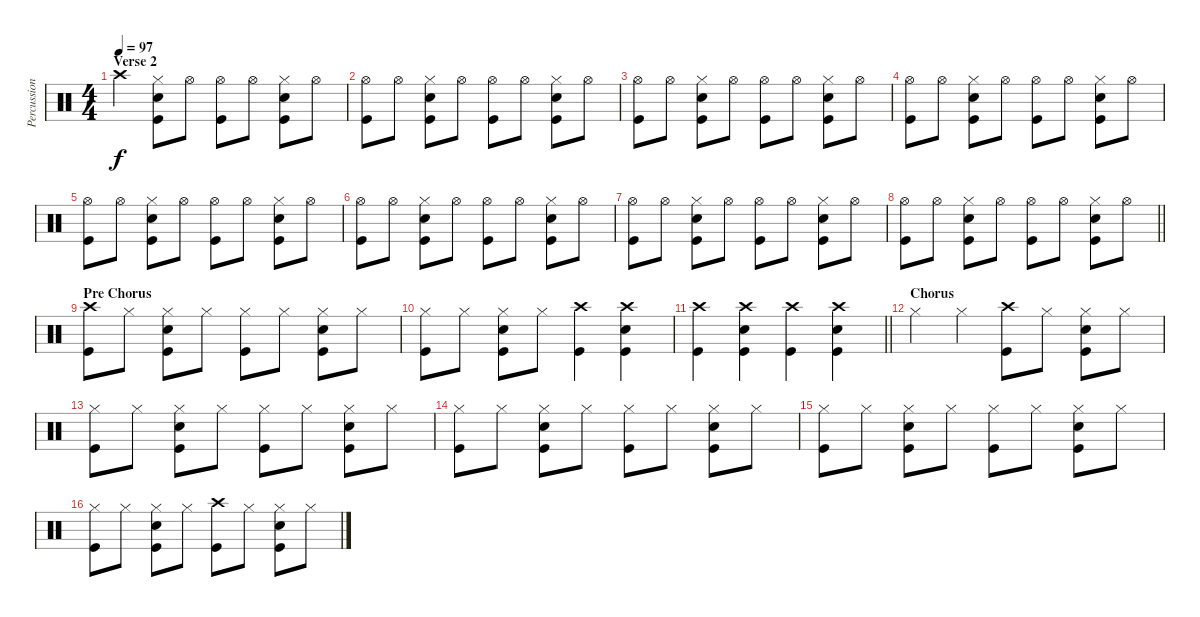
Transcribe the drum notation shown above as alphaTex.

\track ("Percussion" "Percussion") {instrument percussion}
\staff {score}
\articulation defaults
\ts (4 4)
\section ("" "Verse 2")
\tempo 97
\clef neutral
\ks c "Crash high (hit)".4{dy f}
("Hi-Hat (closed)" "Kick (hit)" "Snare (hit) 2").8 "Hi-Hat (open)".8 ("Hi-Hat (open)" "Kick (hit)").8 "Hi-Hat (open)".8 ("Hi-Hat (closed)" "Kick (hit)" "Snare (hit) 2").8 "Hi-Hat (open)".8 |
("Hi-Hat (open)" "Kick (hit)").8 "Hi-Hat (open)".8 ("Hi-Hat (closed)" "Kick (hit)" "Snare (hit) 2").8 "Hi-Hat (open)".8 ("Hi-Hat (open)" "Kick (hit)").8 "Hi-Hat (open)".8 ("Hi-Hat (closed)" "Kick (hit)" "Snare (hit) 2").8 "Hi-Hat (open)".8 |
("Hi-Hat (open)" "Kick (hit)").8 "Hi-Hat (open)".8 ("Hi-Hat (closed)" "Kick (hit)" "Snare (hit) 2").8 "Hi-Hat (open)".8 ("Hi-Hat (open)" "Kick (hit)").8 "Hi-Hat (open)".8 ("Hi-Hat (closed)" "Kick (hit)" "Snare (hit) 2").8 "Hi-Hat (open)".8 |
("Hi-Hat (open)" "Kick (hit)").8 "Hi-Hat (open)".8 ("Hi-Hat (closed)" "Kick (hit)" "Snare (hit) 2").8 "Hi-Hat (open)".8 ("Hi-Hat (open)" "Kick (hit)").8 "Hi-Hat (open)".8 ("Hi-Hat (closed)" "Kick (hit)" "Snare (hit) 2").8 "Hi-Hat (open)".8 |
("Hi-Hat (open)" "Kick (hit)").8 "Hi-Hat (open)".8 ("Hi-Hat (closed)" "Kick (hit)" "Snare (hit) 2").8 "Hi-Hat (open)".8 ("Hi-Hat (open)" "Kick (hit)").8 "Hi-Hat (open)".8 ("Hi-Hat (closed)" "Kick (hit)" "Snare (hit) 2").8 "Hi-Hat (open)".8 |
("Hi-Hat (open)" "Kick (hit)").8 "Hi-Hat (open)".8 ("Hi-Hat (closed)" "Kick (hit)" "Snare (hit) 2").8 "Hi-Hat (open)".8 ("Hi-Hat (open)" "Kick (hit)").8 "Hi-Hat (open)".8 ("Hi-Hat (closed)" "Kick (hit)" "Snare (hit) 2").8 "Hi-Hat (open)".8 |
("Hi-Hat (open)" "Kick (hit)").8 "Hi-Hat (open)".8 ("Hi-Hat (closed)" "Kick (hit)" "Snare (hit) 2").8 "Hi-Hat (open)".8 ("Hi-Hat (open)" "Kick (hit)").8 "Hi-Hat (open)".8 ("Hi-Hat (closed)" "Kick (hit)" "Snare (hit) 2").8 "Hi-Hat (open)".8 |
\barLineRight lightlight
("Hi-Hat (open)" "Kick (hit)").8 "Hi-Hat (open)".8 ("Hi-Hat (closed)" "Kick (hit)" "Snare (hit) 2").8 "Hi-Hat (open)".8 ("Hi-Hat (open)" "Kick (hit)").8 "Hi-Hat (open)".8 ("Hi-Hat (closed)" "Kick (hit)" "Snare (hit) 2").8 "Hi-Hat (open)".8 |
\section ("" "Pre Chorus")
("Crash high (hit)" "Kick (hit)").8 "Hi-Hat (closed)".8 ("Hi-Hat (closed)" "Kick (hit)" "Snare (hit) 2").8 "Hi-Hat (closed)".8 ("Hi-Hat (closed)" "Kick (hit)").8 "Hi-Hat (closed)".8 ("Hi-Hat (closed)" "Kick (hit)" "Snare (hit) 2").8 "Hi-Hat (closed)".8 |
("Hi-Hat (closed)" "Kick (hit)").8 "Hi-Hat (closed)".8 ("Hi-Hat (closed)" "Kick (hit)" "Snare (hit) 2").8 "Hi-Hat (closed)".8 ("Crash high (hit)" "Kick (hit)").4 ("Crash high (hit)" "Kick (hit)" "Snare (hit) 2").4 |
\barLineRight lightlight
("Crash high (hit)" "Kick (hit)").4 ("Crash high (hit)" "Kick (hit)" "Snare (hit) 2").4 ("Crash high (hit)" "Kick (hit)").4 ("Crash high (hit)" "Kick (hit)" "Snare (hit) 2").4 |
\section ("" "Chorus")
"Hi-Hat (closed)".4 "Hi-Hat (closed)".4 ("Crash high (hit)" "Kick (hit)").8 "Hi-Hat (closed)".8 ("Hi-Hat (closed)" "Kick (hit)" "Snare (hit) 2").8 "Hi-Hat (closed)".8 |
("Hi-Hat (closed)" "Kick (hit)").8 "Hi-Hat (closed)".8 ("Hi-Hat (closed)" "Kick (hit)" "Snare (hit) 2").8 "Hi-Hat (closed)".8 ("Hi-Hat (closed)" "Kick (hit)").8 "Hi-Hat (closed)".8 ("Hi-Hat (closed)" "Kick (hit)" "Snare (hit) 2").8 "Hi-Hat (closed)".8 |
("Hi-Hat (closed)" "Kick (hit)").8 "Hi-Hat (closed)".8 ("Hi-Hat (closed)" "Kick (hit)" "Snare (hit) 2").8 "Hi-Hat (closed)".8 ("Hi-Hat (closed)" "Kick (hit)").8 "Hi-Hat (closed)".8 ("Hi-Hat (closed)" "Kick (hit)" "Snare (hit) 2").8 "Hi-Hat (closed)".8 |
("Hi-Hat (closed)" "Kick (hit)").8 "Hi-Hat (closed)".8 ("Hi-Hat (closed)" "Kick (hit)" "Snare (hit) 2").8 "Hi-Hat (closed)".8 ("Hi-Hat (closed)" "Kick (hit)").8 "Hi-Hat (closed)".8 ("Hi-Hat (closed)" "Kick (hit)" "Snare (hit) 2").8 "Hi-Hat (closed)".8 |
("Hi-Hat (closed)" "Kick (hit)").8 "Hi-Hat (closed)".8 ("Hi-Hat (closed)" "Kick (hit)" "Snare (hit) 2").8 "Hi-Hat (closed)".8 ("Crash high (hit)" "Kick (hit)").8 "Hi-Hat (closed)".8 ("Hi-Hat (closed)" "Kick (hit)" "Snare (hit) 2").8 "Hi-Hat (closed)".8
